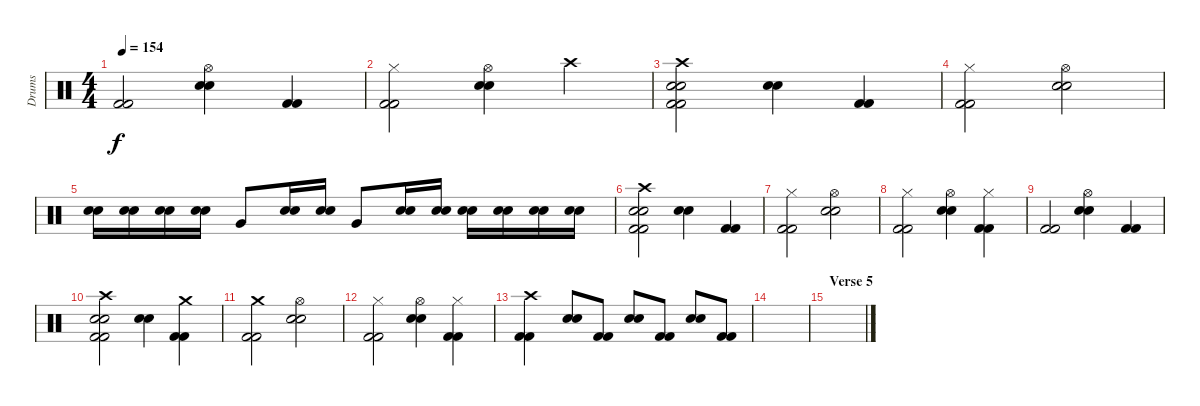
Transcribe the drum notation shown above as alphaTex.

\track ("Drums" "Drums") {instrument percussion}
\staff {score}
\articulation defaults
\ts (4 4)
\tempo 154
\clef neutral
\ks c
("Kick (hit) 2" "Kick (hit) 2").2{dy f} ("Hi-Hat (open)" "Snare (hit) 2" "Snare (hit) 2").4 ("Kick (hit) 2" "Kick (hit) 2").4 |
("Hi-Hat (closed)" "Kick (hit) 2" "Kick (hit) 2").2 ("Hi-Hat (open)" "Snare (hit) 2" "Snare (hit) 2").4 "Crash high (hit)".4 |
("Crash high (hit)" "Snare (hit) 2" "Snare (hit) 2" "Kick (hit) 2" "Kick (hit) 2").2 ("Snare (hit) 2" "Snare (hit) 2").4 ("Kick (hit) 2" "Kick (hit) 2").4 |
("Hi-Hat (closed)" "Kick (hit) 2" "Kick (hit) 2").2 ("Hi-Hat (open)" "Snare (hit) 2" "Snare (hit) 2").2 |
("Snare (hit) 2" "Snare (hit) 2").16 ("Snare (hit) 2" "Snare (hit) 2").16 ("Snare (hit) 2" "Snare (hit) 2").16 ("Snare (hit) 2" "Snare (hit) 2").16 "Very Low Tom (hit)".8 ("Snare (hit) 2" "Snare (hit) 2").16 ("Snare (hit) 2" "Snare (hit) 2").16 "Very Low Tom (hit)".8 ("Snare (hit) 2" "Snare (hit) 2").16 ("Snare (hit) 2" "Snare (hit) 2").16 ("Snare (hit) 2" "Snare (hit) 2").16 ("Snare (hit) 2" "Snare (hit) 2").16 ("Snare (hit) 2" "Snare (hit) 2").16 ("Snare (hit) 2" "Snare (hit) 2").16 |
("Crash high (hit)" "Snare (hit) 2" "Snare (hit) 2" "Kick (hit) 2" "Kick (hit) 2").2 ("Snare (hit) 2" "Snare (hit) 2").4 ("Kick (hit) 2" "Kick (hit) 2").4 |
("Hi-Hat (closed)" "Kick (hit) 2" "Kick (hit) 2").2 ("Hi-Hat (open)" "Snare (hit) 2" "Snare (hit) 2").2 |
("Hi-Hat (closed)" "Kick (hit) 2" "Kick (hit) 2").2 ("Hi-Hat (open)" "Snare (hit) 2" "Snare (hit) 2").4 ("Hi-Hat (closed)" "Kick (hit) 2" "Kick (hit) 2").4 |
("Kick (hit) 2" "Kick (hit) 2").2 ("Hi-Hat (open)" "Snare (hit) 2" "Snare (hit) 2").4 ("Kick (hit) 2" "Kick (hit) 2").4 |
("Crash high (hit)" "Snare (hit) 2" "Snare (hit) 2" "Kick (hit) 2" "Kick (hit) 2").2 ("Snare (hit) 2" "Snare (hit) 2").4 ("Crash medium (hit)" "Kick (hit) 2" "Kick (hit) 2").4 |
("Crash medium (hit)" "Kick (hit) 2" "Kick (hit) 2").2 ("Hi-Hat (open)" "Snare (hit) 2" "Snare (hit) 2").2 |
("Hi-Hat (closed)" "Kick (hit) 2" "Kick (hit) 2").2 ("Hi-Hat (open)" "Snare (hit) 2" "Snare (hit) 2").4 ("Hi-Hat (closed)" "Kick (hit) 2" "Kick (hit) 2").4 |
("Crash high (hit)" "Kick (hit) 2" "Kick (hit) 2").4 ("Snare (hit) 2" "Snare (hit) 2").8 ("Kick (hit) 2" "Kick (hit) 2").8 ("Snare (hit) 2" "Snare (hit) 2").8 ("Kick (hit) 2" "Kick (hit) 2").8 ("Snare (hit) 2" "Snare (hit) 2").8 ("Kick (hit) 2" "Kick (hit) 2").8 |
|
\section ("" "Verse 5")
